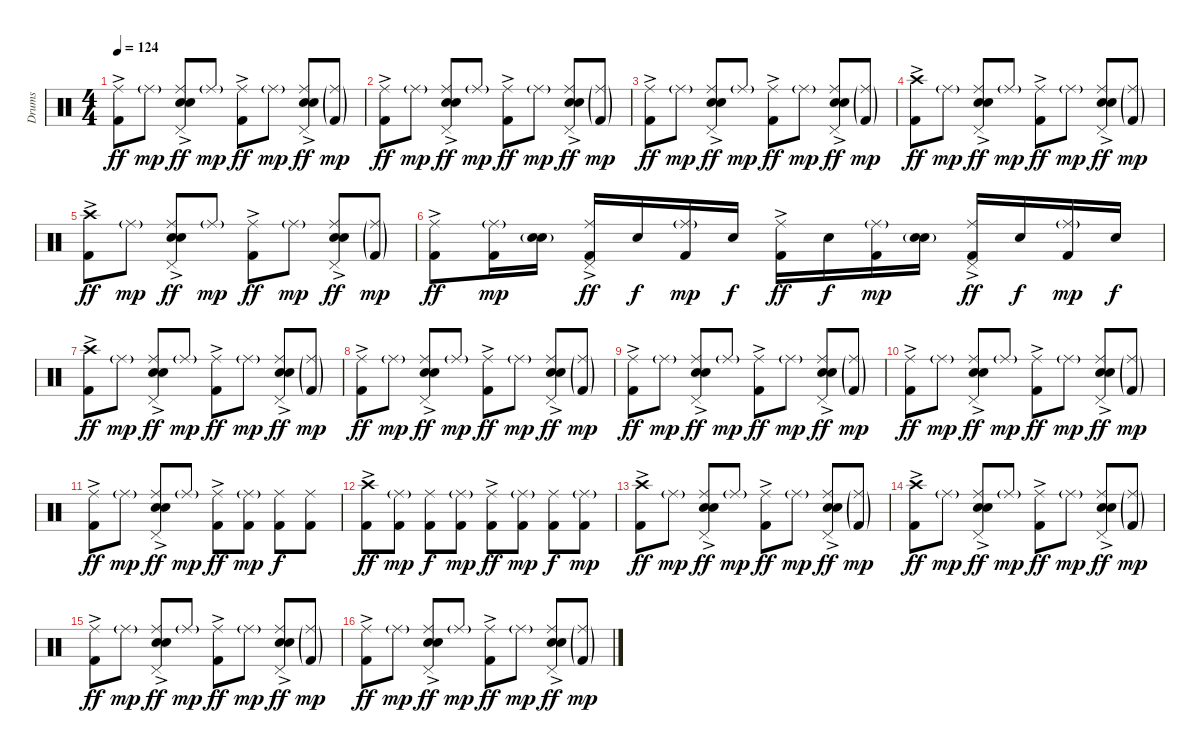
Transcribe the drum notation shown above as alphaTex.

\track ("Drums" "Drums") {instrument percussion}
\staff {score}
\articulation defaults
\ts (4 4)
\tempo 124
\clef neutral
\ks c
("Ride (middle)" "Kick (hit) 2"{ac}).8{dy ff} "Ride (middle)"{g}.8{dy mp} ("Ride (middle)" "Electric Snare (hit)"{ac} "Snare (hit) 2" "Pedal Hi-Hat (hit)").8{dy ff} "Ride (middle)"{g}.8{dy mp} ("Ride (middle)" "Kick (hit) 2"{ac}).8{dy ff} "Ride (middle)"{g}.8{dy mp} ("Ride (middle)" "Electric Snare (hit)"{ac} "Snare (hit) 2" "Pedal Hi-Hat (hit)").8{dy ff} ("Ride (middle)"{g} "Kick (hit) 2"{g}).8{dy mp} |
("Ride (middle)" "Kick (hit) 2"{ac}).8{dy ff} "Ride (middle)"{g}.8{dy mp} ("Ride (middle)" "Electric Snare (hit)"{ac} "Snare (hit) 2" "Pedal Hi-Hat (hit)").8{dy ff} "Ride (middle)"{g}.8{dy mp} ("Ride (middle)" "Kick (hit) 2"{ac}).8{dy ff} "Ride (middle)"{g}.8{dy mp} ("Ride (middle)" "Electric Snare (hit)"{ac} "Snare (hit) 2" "Pedal Hi-Hat (hit)").8{dy ff} ("Ride (middle)"{g} "Kick (hit) 2"{g}).8{dy mp} |
("Ride (middle)" "Kick (hit) 2"{ac}).8{dy ff} "Ride (middle)"{g}.8{dy mp} ("Ride (middle)" "Electric Snare (hit)"{ac} "Snare (hit) 2" "Pedal Hi-Hat (hit)").8{dy ff} "Ride (middle)"{g}.8{dy mp} ("Ride (middle)" "Kick (hit) 2"{ac}).8{dy ff} "Ride (middle)"{g}.8{dy mp} ("Ride (middle)" "Electric Snare (hit)"{ac} "Snare (hit) 2" "Pedal Hi-Hat (hit)").8{dy ff} ("Ride (middle)"{g} "Kick (hit) 2"{g}).8{dy mp} |
("Crash high (hit)" "Kick (hit) 2"{ac}).8{dy ff} "Ride (middle)"{g}.8{dy mp} ("Ride (middle)" "Electric Snare (hit)"{ac} "Snare (hit) 2" "Pedal Hi-Hat (hit)").8{dy ff} "Ride (middle)"{g}.8{dy mp} ("Ride (middle)" "Kick (hit) 2"{ac}).8{dy ff} "Ride (middle)"{g}.8{dy mp} ("Ride (middle)" "Electric Snare (hit)"{ac} "Snare (hit) 2" "Pedal Hi-Hat (hit)").8{dy ff} ("Ride (middle)"{g} "Kick (hit) 2"{g}).8{dy mp} |
("Crash high (hit)" "Kick (hit) 2"{ac}).8{dy ff} "Ride (middle)"{g}.8{dy mp} ("Ride (middle)" "Electric Snare (hit)"{ac} "Snare (hit) 2" "Pedal Hi-Hat (hit)").8{dy ff} "Ride (middle)"{g}.8{dy mp} ("Ride (middle)" "Kick (hit) 2"{ac}).8{dy ff} "Ride (middle)"{g}.8{dy mp} ("Ride (middle)" "Electric Snare (hit)"{ac} "Snare (hit) 2" "Pedal Hi-Hat (hit)").8{dy ff} ("Ride (middle)"{g} "Kick (hit) 2"{g}).8{dy mp} |
("Ride (middle)" "Kick (hit) 2"{ac}).8{dy ff} ("Ride (middle)"{g} "Kick (hit) 2").16{dy mp} ("Electric Snare (hit)"{g} "Snare (hit) 2").16 ("Ride (middle)" "Pedal Hi-Hat (hit)" "Kick (hit) 2"{ac}).16{dy ff} "Snare (hit) 2".16{dy f} ("Ride (middle)"{g} "Kick (hit) 2").16{dy mp} "Snare (hit) 2".16{dy f} ("Ride (middle)" "Kick (hit) 2"{ac}).16{dy ff} "Snare (hit) 2".16{dy f} ("Ride (middle)"{g} "Kick (hit) 2").16{dy mp} ("Electric Snare (hit)"{g} "Snare (hit) 2").16 ("Ride (middle)" "Pedal Hi-Hat (hit)" "Kick (hit) 2"{ac}).16{dy ff} "Snare (hit) 2".16{dy f} ("Ride (middle)"{g} "Kick (hit) 2").16{dy mp} "Snare (hit) 2".16{dy f} |
("Crash high (hit)" "Kick (hit) 2"{ac}).8{dy ff} "Ride (middle)"{g}.8{dy mp} ("Ride (middle)" "Electric Snare (hit)"{ac} "Snare (hit) 2" "Pedal Hi-Hat (hit)").8{dy ff} "Ride (middle)"{g}.8{dy mp} ("Ride (middle)" "Kick (hit) 2"{ac}).8{dy ff} "Ride (middle)"{g}.8{dy mp} ("Ride (middle)" "Electric Snare (hit)"{ac} "Snare (hit) 2" "Pedal Hi-Hat (hit)").8{dy ff} ("Ride (middle)"{g} "Kick (hit) 2"{g}).8{dy mp} |
("Ride (middle)" "Kick (hit) 2"{ac}).8{dy ff} "Ride (middle)"{g}.8{dy mp} ("Ride (middle)" "Electric Snare (hit)"{ac} "Snare (hit) 2" "Pedal Hi-Hat (hit)").8{dy ff} "Ride (middle)"{g}.8{dy mp} ("Ride (middle)" "Kick (hit) 2"{ac}).8{dy ff} "Ride (middle)"{g}.8{dy mp} ("Ride (middle)" "Electric Snare (hit)"{ac} "Snare (hit) 2" "Pedal Hi-Hat (hit)").8{dy ff} ("Ride (middle)"{g} "Kick (hit) 2"{g}).8{dy mp} |
("Ride (middle)" "Kick (hit) 2"{ac}).8{dy ff} "Ride (middle)"{g}.8{dy mp} ("Ride (middle)" "Electric Snare (hit)"{ac} "Snare (hit) 2" "Pedal Hi-Hat (hit)").8{dy ff} "Ride (middle)"{g}.8{dy mp} ("Ride (middle)" "Kick (hit) 2"{ac}).8{dy ff} "Ride (middle)"{g}.8{dy mp} ("Ride (middle)" "Electric Snare (hit)"{ac} "Snare (hit) 2" "Pedal Hi-Hat (hit)").8{dy ff} ("Ride (middle)"{g} "Kick (hit) 2"{g}).8{dy mp} |
("Ride (middle)" "Kick (hit) 2"{ac}).8{dy ff} "Ride (middle)"{g}.8{dy mp} ("Ride (middle)" "Electric Snare (hit)"{ac} "Snare (hit) 2" "Pedal Hi-Hat (hit)").8{dy ff} "Ride (middle)"{g}.8{dy mp} ("Ride (middle)" "Kick (hit) 2"{ac}).8{dy ff} "Ride (middle)"{g}.8{dy mp} ("Ride (middle)" "Electric Snare (hit)"{ac} "Snare (hit) 2" "Pedal Hi-Hat (hit)").8{dy ff} ("Ride (middle)"{g} "Kick (hit) 2"{g}).8{dy mp} |
("Ride (middle)" "Kick (hit) 2"{ac}).8{dy ff} "Ride (middle)"{g}.8{dy mp} ("Ride (middle)" "Electric Snare (hit)"{ac} "Snare (hit) 2" "Pedal Hi-Hat (hit)").8{dy ff} "Ride (middle)"{g}.8{dy mp} ("Ride (middle)" "Kick (hit) 2"{ac}).8{dy ff} ("Ride (middle)"{g} "Kick (hit) 2").8{dy mp} ("Ride (middle)" "Kick (hit) 2").8{dy f} ("Ride (middle)" "Kick (hit) 2").8 |
("Crash high (hit)" "Kick (hit) 2"{ac}).8{dy ff} ("Ride (middle)"{g} "Kick (hit) 2").8{dy mp} ("Ride (middle)" "Kick (hit) 2").8{dy f} ("Ride (middle)"{g} "Kick (hit) 2").8{dy mp} ("Ride (middle)" "Kick (hit) 2"{ac}).8{dy ff} ("Ride (middle)"{g} "Kick (hit) 2").8{dy mp} ("Ride (middle)" "Kick (hit) 2").8{dy f} ("Ride (middle)"{g} "Kick (hit) 2").8{dy mp} |
("Crash high (hit)" "Kick (hit) 2"{ac}).8{dy ff} "Ride (middle)"{g}.8{dy mp} ("Ride (middle)" "Electric Snare (hit)"{ac} "Snare (hit) 2" "Pedal Hi-Hat (hit)").8{dy ff} "Ride (middle)"{g}.8{dy mp} ("Ride (middle)" "Kick (hit) 2"{ac}).8{dy ff} "Ride (middle)"{g}.8{dy mp} ("Ride (middle)" "Electric Snare (hit)"{ac} "Snare (hit) 2" "Pedal Hi-Hat (hit)").8{dy ff} ("Ride (middle)"{g} "Kick (hit) 2"{g}).8{dy mp} |
("Crash high (hit)" "Kick (hit) 2"{ac}).8{dy ff} "Ride (middle)"{g}.8{dy mp} ("Ride (middle)" "Electric Snare (hit)"{ac} "Snare (hit) 2" "Pedal Hi-Hat (hit)").8{dy ff} "Ride (middle)"{g}.8{dy mp} ("Ride (middle)" "Kick (hit) 2"{ac}).8{dy ff} "Ride (middle)"{g}.8{dy mp} ("Ride (middle)" "Electric Snare (hit)"{ac} "Snare (hit) 2" "Pedal Hi-Hat (hit)").8{dy ff} ("Ride (middle)"{g} "Kick (hit) 2"{g}).8{dy mp} |
("Ride (middle)" "Kick (hit) 2"{ac}).8{dy ff} "Ride (middle)"{g}.8{dy mp} ("Ride (middle)" "Electric Snare (hit)"{ac} "Snare (hit) 2" "Pedal Hi-Hat (hit)").8{dy ff} "Ride (middle)"{g}.8{dy mp} ("Ride (middle)" "Kick (hit) 2"{ac}).8{dy ff} "Ride (middle)"{g}.8{dy mp} ("Ride (middle)" "Electric Snare (hit)"{ac} "Snare (hit) 2" "Pedal Hi-Hat (hit)").8{dy ff} ("Ride (middle)"{g} "Kick (hit) 2"{g}).8{dy mp} |
("Ride (middle)" "Kick (hit) 2"{ac}).8{dy ff} "Ride (middle)"{g}.8{dy mp} ("Ride (middle)" "Electric Snare (hit)"{ac} "Snare (hit) 2" "Pedal Hi-Hat (hit)").8{dy ff} "Ride (middle)"{g}.8{dy mp} ("Ride (middle)" "Kick (hit) 2"{ac}).8{dy ff} "Ride (middle)"{g}.8{dy mp} ("Ride (middle)" "Electric Snare (hit)"{ac} "Snare (hit) 2" "Pedal Hi-Hat (hit)").8{dy ff} ("Ride (middle)"{g} "Kick (hit) 2"{g}).8{dy mp}
